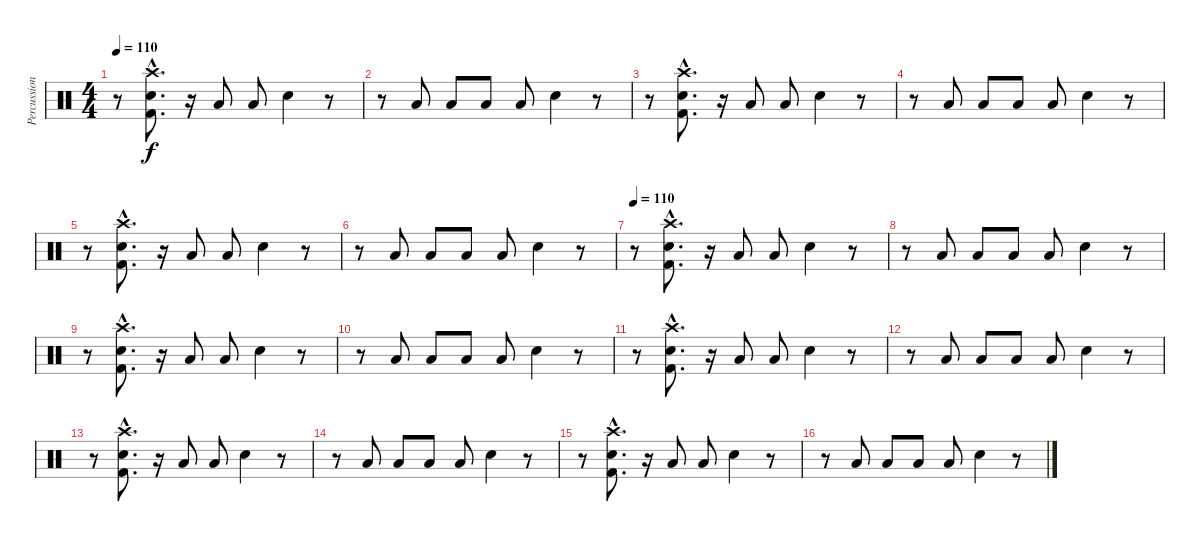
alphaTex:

\track ("Percussioni" "Percussion") {instrument percussion}
\staff {score}
\articulation defaults
\ts (4 4)
\tempo 110
\clef neutral
\ks c
r.8{dy f} ("Crash high (hit)"{hac} "Electric Snare (hit)"{hac} "Kick (hit) 2"{hac}).8{d} r.16 "Low Tom (hit)".8 "Low Tom (hit)".8 "Electric Snare (hit)".4 r.8 |
r.8 "Low Tom (hit)".8 "Low Tom (hit)".8 "Low Tom (hit)".8 "Low Tom (hit)".8 "Electric Snare (hit)".4 r.8 |
r.8 ("Crash high (hit)"{hac} "Electric Snare (hit)"{hac} "Kick (hit) 2"{hac}).8{d} r.16 "Low Tom (hit)".8 "Low Tom (hit)".8 "Electric Snare (hit)".4 r.8 |
r.8 "Low Tom (hit)".8 "Low Tom (hit)".8 "Low Tom (hit)".8 "Low Tom (hit)".8 "Electric Snare (hit)".4 r.8 |
r.8 ("Crash high (hit)"{hac} "Electric Snare (hit)"{hac} "Kick (hit) 2"{hac}).8{d} r.16 "Low Tom (hit)".8 "Low Tom (hit)".8 "Electric Snare (hit)".4 r.8 |
r.8 "Low Tom (hit)".8 "Low Tom (hit)".8 "Low Tom (hit)".8 "Low Tom (hit)".8 "Electric Snare (hit)".4 r.8 |
\tempo 110
r.8 ("Crash high (hit)"{hac} "Electric Snare (hit)"{hac} "Kick (hit) 2"{hac}).8{d} r.16 "Low Tom (hit)".8 "Low Tom (hit)".8 "Electric Snare (hit)".4 r.8 |
r.8 "Low Tom (hit)".8 "Low Tom (hit)".8 "Low Tom (hit)".8 "Low Tom (hit)".8 "Electric Snare (hit)".4 r.8 |
r.8 ("Crash high (hit)"{hac} "Electric Snare (hit)"{hac} "Kick (hit) 2"{hac}).8{d} r.16 "Low Tom (hit)".8 "Low Tom (hit)".8 "Electric Snare (hit)".4 r.8 |
r.8 "Low Tom (hit)".8 "Low Tom (hit)".8 "Low Tom (hit)".8 "Low Tom (hit)".8 "Electric Snare (hit)".4 r.8 |
r.8 ("Crash high (hit)"{hac} "Electric Snare (hit)"{hac} "Kick (hit) 2"{hac}).8{d} r.16 "Low Tom (hit)".8 "Low Tom (hit)".8 "Electric Snare (hit)".4 r.8 |
r.8 "Low Tom (hit)".8 "Low Tom (hit)".8 "Low Tom (hit)".8 "Low Tom (hit)".8 "Electric Snare (hit)".4 r.8 |
r.8 ("Crash high (hit)"{hac} "Electric Snare (hit)"{hac} "Kick (hit) 2"{hac}).8{d} r.16 "Low Tom (hit)".8 "Low Tom (hit)".8 "Electric Snare (hit)".4 r.8 |
r.8 "Low Tom (hit)".8 "Low Tom (hit)".8 "Low Tom (hit)".8 "Low Tom (hit)".8 "Electric Snare (hit)".4 r.8 |
r.8{volume 8} ("Crash high (hit)"{hac} "Electric Snare (hit)"{hac} "Kick (hit) 2"{hac}).8{d} r.16 "Low Tom (hit)".8 "Low Tom (hit)".8 "Electric Snare (hit)".4 r.8 |
r.8 "Low Tom (hit)".8 "Low Tom (hit)".8 "Low Tom (hit)".8 "Low Tom (hit)".8 "Electric Snare (hit)".4 r.8
